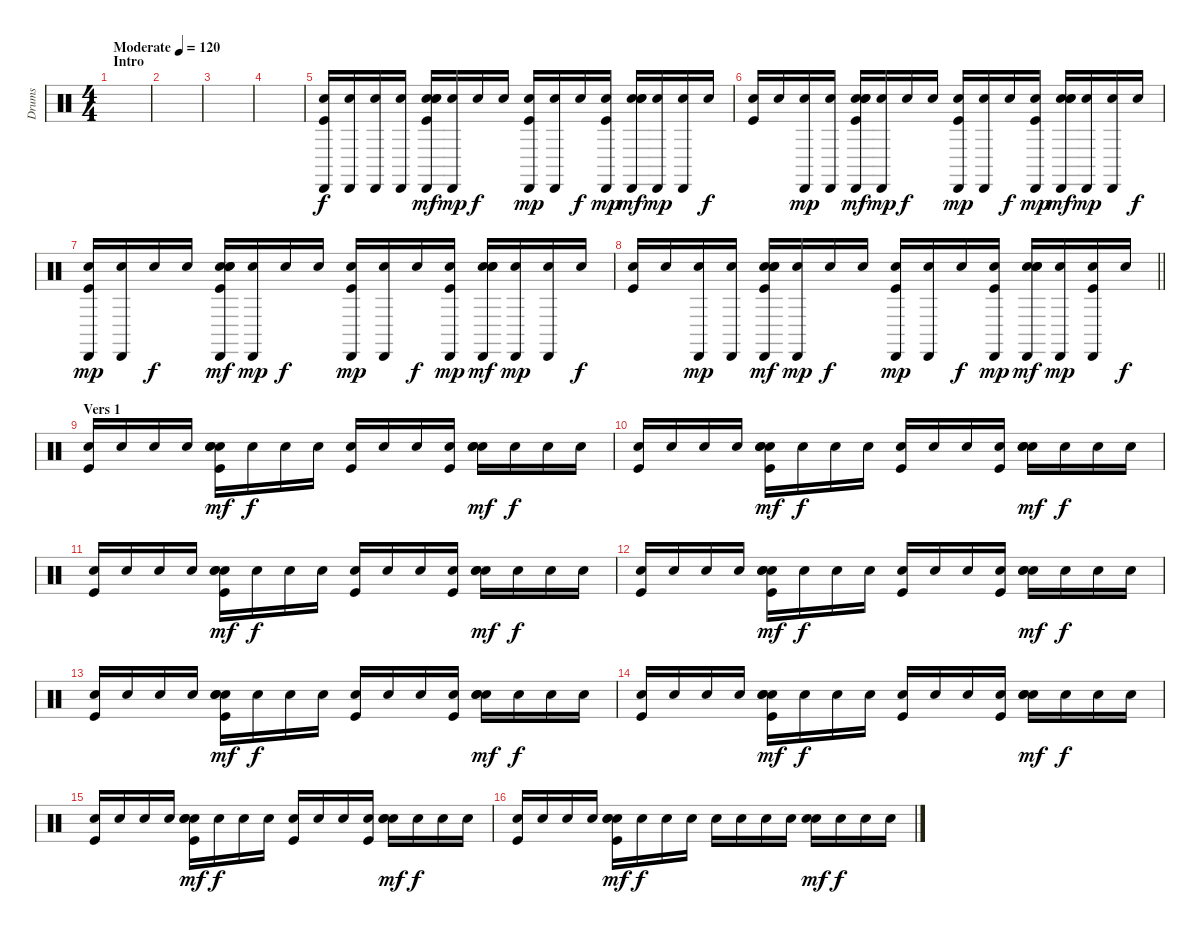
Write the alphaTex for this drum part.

\track ("Drums" "Drums") {instrument percussion}
\staff {score}
\articulation defaults
\ts (4 4)
\section ("" "Intro")
\tempo (120 "Moderate")
\clef neutral
\ks c
|
|
|
|
("Snare (hit)" "Cabasa (hit)" "Kick (hit)").16 ("Snare (hit)" "Cabasa (hit)").16 ("Snare (hit)" "Cabasa (hit)").16 ("Snare (hit)" "Cabasa (hit)").16 ("Snare (hit)" "Cabasa (hit)" "Hand Clap (hit)" "Electric Snare (hit)" "Kick (hit)").16{dy mf} ("Snare (hit)" "Cabasa (hit)").16{dy mp} "Snare (hit)".16{dy f} "Snare (hit)".16 ("Snare (hit)" "Cabasa (hit)" "Kick (hit)").16{dy mp} ("Snare (hit)" "Cabasa (hit)").16 "Snare (hit)".16{dy f} ("Snare (hit)" "Cabasa (hit)" "Kick (hit)").16{dy mp} ("Snare (hit)" "Cabasa (hit)" "Hand Clap (hit)" "Electric Snare (hit)").16{dy mf} ("Snare (hit)" "Cabasa (hit)").16{dy mp} ("Snare (hit)" "Cabasa (hit)").16 "Snare (hit)".16{dy f} |
("Snare (hit)" "Kick (hit)").16 "Snare (hit)".16 ("Snare (hit)" "Cabasa (hit)").16{dy mp} ("Snare (hit)" "Cabasa (hit)").16 ("Snare (hit)" "Cabasa (hit)" "Hand Clap (hit)" "Electric Snare (hit)" "Kick (hit)").16{dy mf} ("Snare (hit)" "Cabasa (hit)").16{dy mp} "Snare (hit)".16{dy f} "Snare (hit)".16 ("Snare (hit)" "Cabasa (hit)" "Kick (hit)").16{dy mp} ("Snare (hit)" "Cabasa (hit)").16 "Snare (hit)".16{dy f} ("Snare (hit)" "Cabasa (hit)" "Kick (hit)").16{dy mp} ("Snare (hit)" "Cabasa (hit)" "Hand Clap (hit)" "Electric Snare (hit)").16{dy mf} ("Snare (hit)" "Cabasa (hit)").16{dy mp} ("Snare (hit)" "Cabasa (hit)").16 "Snare (hit)".16{dy f} |
("Snare (hit)" "Cabasa (hit)" "Kick (hit)").16{dy mp} ("Snare (hit)" "Cabasa (hit)").16 "Snare (hit)".16{dy f} "Snare (hit)".16 ("Snare (hit)" "Cabasa (hit)" "Hand Clap (hit)" "Electric Snare (hit)" "Kick (hit)").16{dy mf} ("Snare (hit)" "Cabasa (hit)").16{dy mp} "Snare (hit)".16{dy f} "Snare (hit)".16 ("Snare (hit)" "Cabasa (hit)" "Kick (hit)").16{dy mp} ("Snare (hit)" "Cabasa (hit)").16 "Snare (hit)".16{dy f} ("Snare (hit)" "Cabasa (hit)" "Kick (hit)").16{dy mp} ("Snare (hit)" "Cabasa (hit)" "Hand Clap (hit)" "Electric Snare (hit)").16{dy mf} ("Snare (hit)" "Cabasa (hit)").16{dy mp} ("Snare (hit)" "Cabasa (hit)").16 "Snare (hit)".16{dy f} |
\barLineRight lightlight
("Snare (hit)" "Kick (hit)").16 "Snare (hit)".16 ("Snare (hit)" "Cabasa (hit)").16{dy mp} ("Snare (hit)" "Cabasa (hit)").16 ("Snare (hit)" "Cabasa (hit)" "Hand Clap (hit)" "Electric Snare (hit)" "Kick (hit)").16{dy mf} ("Snare (hit)" "Cabasa (hit)").16{dy mp} "Snare (hit)".16{dy f} "Snare (hit)".16 ("Snare (hit)" "Cabasa (hit)" "Kick (hit)").16{dy mp} ("Snare (hit)" "Cabasa (hit)").16 "Snare (hit)".16{dy f} ("Snare (hit)" "Cabasa (hit)" "Kick (hit)").16{dy mp} ("Snare (hit)" "Cabasa (hit)" "Hand Clap (hit)" "Electric Snare (hit)").16{dy mf} ("Snare (hit)" "Cabasa (hit)").16{dy mp} ("Snare (hit)" "Cabasa (hit)" "Kick (hit)").16 "Snare (hit)".16{dy f} |
\section ("" "Vers 1")
("Snare (hit)" "Kick (hit)").16 "Snare (hit)".16 "Snare (hit)".16 "Snare (hit)".16 ("Snare (hit)" "Hand Clap (hit)" "Electric Snare (hit)" "Kick (hit)").16{dy mf} "Snare (hit)".16{dy f} "Snare (hit)".16 "Snare (hit)".16 ("Snare (hit)" "Kick (hit)").16 "Snare (hit)".16 "Snare (hit)".16 ("Snare (hit)" "Kick (hit)").16 ("Snare (hit)" "Hand Clap (hit)" "Electric Snare (hit)").16{dy mf} "Snare (hit)".16{dy f} "Snare (hit)".16 "Snare (hit)".16 |
("Snare (hit)" "Kick (hit)").16 "Snare (hit)".16 "Snare (hit)".16 "Snare (hit)".16 ("Snare (hit)" "Hand Clap (hit)" "Electric Snare (hit)" "Kick (hit)").16{dy mf} "Snare (hit)".16{dy f} "Snare (hit)".16 "Snare (hit)".16 ("Snare (hit)" "Kick (hit)").16 "Snare (hit)".16 "Snare (hit)".16 ("Snare (hit)" "Kick (hit)").16 ("Snare (hit)" "Hand Clap (hit)" "Electric Snare (hit)").16{dy mf} "Snare (hit)".16{dy f} "Snare (hit)".16 "Snare (hit)".16 |
("Snare (hit)" "Kick (hit)").16 "Snare (hit)".16 "Snare (hit)".16 "Snare (hit)".16 ("Snare (hit)" "Hand Clap (hit)" "Electric Snare (hit)" "Kick (hit)").16{dy mf} "Snare (hit)".16{dy f} "Snare (hit)".16 "Snare (hit)".16 ("Snare (hit)" "Kick (hit)").16 "Snare (hit)".16 "Snare (hit)".16 ("Snare (hit)" "Kick (hit)").16 ("Snare (hit)" "Hand Clap (hit)" "Electric Snare (hit)").16{dy mf} "Snare (hit)".16{dy f} "Snare (hit)".16 "Snare (hit)".16 |
("Snare (hit)" "Kick (hit)").16 "Snare (hit)".16 "Snare (hit)".16 "Snare (hit)".16 ("Snare (hit)" "Hand Clap (hit)" "Electric Snare (hit)" "Kick (hit)").16{dy mf} "Snare (hit)".16{dy f} "Snare (hit)".16 "Snare (hit)".16 ("Snare (hit)" "Kick (hit)").16 "Snare (hit)".16 "Snare (hit)".16 ("Snare (hit)" "Kick (hit)").16 ("Snare (hit)" "Hand Clap (hit)" "Electric Snare (hit)").16{dy mf} "Snare (hit)".16{dy f} "Snare (hit)".16 "Snare (hit)".16 |
("Snare (hit)" "Kick (hit)").16 "Snare (hit)".16 "Snare (hit)".16 "Snare (hit)".16 ("Snare (hit)" "Hand Clap (hit)" "Electric Snare (hit)" "Kick (hit)").16{dy mf} "Snare (hit)".16{dy f} "Snare (hit)".16 "Snare (hit)".16 ("Snare (hit)" "Kick (hit)").16 "Snare (hit)".16 "Snare (hit)".16 ("Snare (hit)" "Kick (hit)").16 ("Snare (hit)" "Hand Clap (hit)" "Electric Snare (hit)").16{dy mf} "Snare (hit)".16{dy f} "Snare (hit)".16 "Snare (hit)".16 |
("Snare (hit)" "Kick (hit)").16 "Snare (hit)".16 "Snare (hit)".16 "Snare (hit)".16 ("Snare (hit)" "Hand Clap (hit)" "Electric Snare (hit)" "Kick (hit)").16{dy mf} "Snare (hit)".16{dy f} "Snare (hit)".16 "Snare (hit)".16 ("Snare (hit)" "Kick (hit)").16 "Snare (hit)".16 "Snare (hit)".16 ("Snare (hit)" "Kick (hit)").16 ("Snare (hit)" "Hand Clap (hit)" "Electric Snare (hit)").16{dy mf} "Snare (hit)".16{dy f} "Snare (hit)".16 "Snare (hit)".16 |
("Snare (hit)" "Kick (hit)").16 "Snare (hit)".16 "Snare (hit)".16 "Snare (hit)".16 ("Snare (hit)" "Hand Clap (hit)" "Electric Snare (hit)" "Kick (hit)").16{dy mf} "Snare (hit)".16{dy f} "Snare (hit)".16 "Snare (hit)".16 ("Snare (hit)" "Kick (hit)").16 "Snare (hit)".16 "Snare (hit)".16 ("Snare (hit)" "Kick (hit)").16 ("Snare (hit)" "Hand Clap (hit)" "Electric Snare (hit)").16{dy mf} "Snare (hit)".16{dy f} "Snare (hit)".16 "Snare (hit)".16 |
("Snare (hit)" "Kick (hit)").16 "Snare (hit)".16 "Snare (hit)".16 "Snare (hit)".16 ("Snare (hit)" "Hand Clap (hit)" "Electric Snare (hit)" "Kick (hit)").16{dy mf} "Snare (hit)".16{dy f} "Snare (hit)".16 "Snare (hit)".16 "Snare (hit)".16 "Snare (hit)".16 "Snare (hit)".16 "Snare (hit)".16 ("Snare (hit)" "Hand Clap (hit)").16{dy mf} "Snare (hit)".16{dy f} "Snare (hit)".16 "Snare (hit)".16
